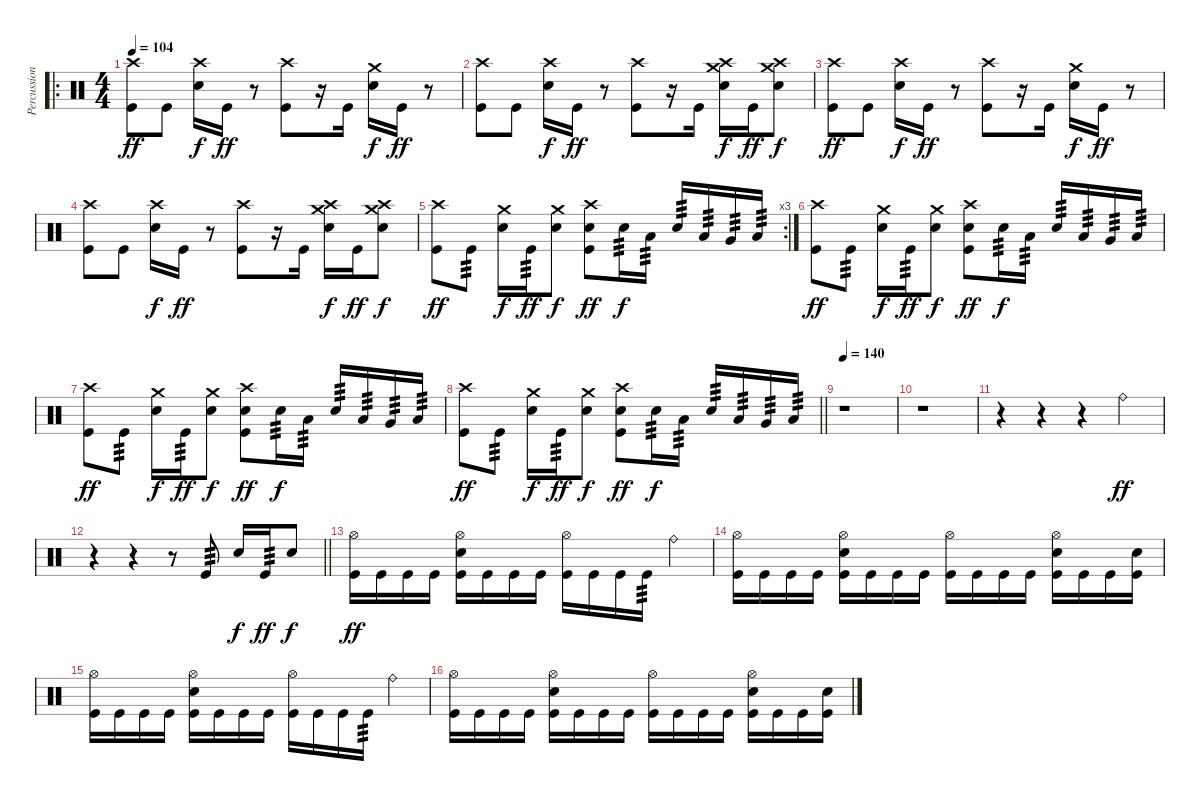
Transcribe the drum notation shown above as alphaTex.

\track ("Percussion" "Percussion") {instrument percussion}
\staff {score}
\articulation defaults
\ro
\ts (4 4)
\tempo 104
\clef neutral
\ks c
("Crash high (hit)" "Kick (hit)").8{dy ff} "Kick (hit)".8 ("Crash high (hit)" "Electric Snare (hit)").16{dy f} "Kick (hit)".16{dy ff} r.8 ("Crash high (hit)" "Kick (hit)").8 r.16 "Kick (hit)".16 ("Crash medium (hit)" "Electric Snare (hit)").16{dy f} "Kick (hit)".16{dy ff} r.8 |
("Crash high (hit)" "Kick (hit)").8 "Kick (hit)".8 ("Crash high (hit)" "Electric Snare (hit)").16{dy f} "Kick (hit)".16{dy ff} r.8 ("Crash high (hit)" "Kick (hit)").8 r.16 "Kick (hit)".16 ("Crash medium (hit)" "Crash high (hit)" "Electric Snare (hit)").16{dy f} "Kick (hit)".16{dy ff} ("Crash medium (hit)" "Crash high (hit)" "Electric Snare (hit)").8{dy f} |
("Crash high (hit)" "Kick (hit)").8{dy ff} "Kick (hit)".8 ("Crash high (hit)" "Electric Snare (hit)").16{dy f} "Kick (hit)".16{dy ff} r.8 ("Crash high (hit)" "Kick (hit)").8 r.16 "Kick (hit)".16 ("Crash medium (hit)" "Electric Snare (hit)").16{dy f} "Kick (hit)".16{dy ff} r.8 |
("Crash high (hit)" "Kick (hit)").8 "Kick (hit)".8 ("Crash high (hit)" "Electric Snare (hit)").16{dy f} "Kick (hit)".16{dy ff} r.8 ("Crash high (hit)" "Kick (hit)").8 r.16 "Kick (hit)".16 ("Crash medium (hit)" "Crash high (hit)" "Electric Snare (hit)").16{dy f} "Kick (hit)".16{dy ff} ("Crash medium (hit)" "Crash high (hit)" "Electric Snare (hit)").8{dy f} |
\rc 3
("Crash high (hit)" "Kick (hit)").8{dy ff} "Kick (hit)".8{tp 3} ("Crash medium (hit)" "Electric Snare (hit)").16{dy f} "Kick (hit)".16{tp 3 dy ff} ("Crash medium (hit)" "Electric Snare (hit)").8{dy f} ("Crash high (hit)" "Electric Snare (hit)" "Kick (hit)").8{dy ff} "Electric Snare (hit)".16{tp 3 dy f} "Low Tom (hit)".16{tp 3} "Electric Snare (hit)".16{tp 3} "Low Tom (hit)".16{tp 3} "Very Low Tom (hit)".16{tp 3} "Low Floor Tom (hit)".16{tp 3} |
("Crash high (hit)" "Kick (hit)").8{dy ff} "Kick (hit)".8{tp 3} ("Crash medium (hit)" "Electric Snare (hit)").16{dy f} "Kick (hit)".16{tp 3 dy ff} ("Crash medium (hit)" "Electric Snare (hit)").8{dy f} ("Crash high (hit)" "Electric Snare (hit)" "Kick (hit)").8{dy ff} "Electric Snare (hit)".16{tp 3 dy f} "Low Tom (hit)".16{tp 3} "Electric Snare (hit)".16{tp 3} "Low Tom (hit)".16{tp 3} "Very Low Tom (hit)".16{tp 3} "Low Floor Tom (hit)".16{tp 3} |
("Crash high (hit)" "Kick (hit)").8{dy ff} "Kick (hit)".8{tp 3} ("Crash medium (hit)" "Electric Snare (hit)").16{dy f} "Kick (hit)".16{tp 3 dy ff} ("Crash medium (hit)" "Electric Snare (hit)").8{dy f} ("Crash high (hit)" "Electric Snare (hit)" "Kick (hit)").8{dy ff} "Electric Snare (hit)".16{tp 3 dy f} "Low Tom (hit)".16{tp 3} "Electric Snare (hit)".16{tp 3} "Low Tom (hit)".16{tp 3} "Very Low Tom (hit)".16{tp 3} "Low Floor Tom (hit)".16{tp 3} |
\barLineRight lightlight
("Crash high (hit)" "Kick (hit)").8{dy ff} "Kick (hit)".8{tp 3} ("Crash medium (hit)" "Electric Snare (hit)").16{dy f} "Kick (hit)".16{tp 3 dy ff} ("Crash medium (hit)" "Electric Snare (hit)").8{dy f} ("Crash high (hit)" "Electric Snare (hit)" "Kick (hit)").8{dy ff} "Electric Snare (hit)".16{tp 3 dy f} "Low Tom (hit)".16{tp 3} "Electric Snare (hit)".16{tp 3} "Low Tom (hit)".16{tp 3} "Very Low Tom (hit)".16{tp 3} "Low Floor Tom (hit)".16{tp 3} |
\tempo 140
r.1 |
r.1 |
r.4 r.4 r.4 "Ride (bell)".4{dy ff} |
\barLineRight lightlight
r.4 r.4 r.8 "Kick (hit)".8{tp 3} "Electric Snare (hit)".16{dy f} "Kick (hit)".16{tp 3 dy ff} "Electric Snare (hit)".8{dy f} |
("Hi-Hat (open)" "Kick (hit)").16{dy ff} "Kick (hit)".16 "Kick (hit)".16 "Kick (hit)".16 ("Hi-Hat (open)" "Electric Snare (hit)" "Kick (hit)").16 "Kick (hit)".16 "Kick (hit)".16 "Kick (hit)".16 ("Hi-Hat (open)" "Kick (hit)").16 "Kick (hit)".16 "Kick (hit)".16 "Kick (hit)".16{tp 3} "Ride (bell)".4 |
("Hi-Hat (open)" "Kick (hit)").16 "Kick (hit)".16 "Kick (hit)".16 "Kick (hit)".16 ("Hi-Hat (open)" "Electric Snare (hit)" "Kick (hit)").16 "Kick (hit)".16 "Kick (hit)".16 "Kick (hit)".16 ("Hi-Hat (open)" "Kick (hit)").16 "Kick (hit)".16 "Kick (hit)".16 "Kick (hit)".16 ("Hi-Hat (open)" "Electric Snare (hit)" "Kick (hit)").16 "Kick (hit)".16 "Kick (hit)".16 ("Electric Snare (hit)" "Kick (hit)").16 |
("Hi-Hat (open)" "Kick (hit)").16 "Kick (hit)".16 "Kick (hit)".16 "Kick (hit)".16 ("Hi-Hat (open)" "Electric Snare (hit)" "Kick (hit)").16 "Kick (hit)".16 "Kick (hit)".16 "Kick (hit)".16 ("Hi-Hat (open)" "Kick (hit)").16 "Kick (hit)".16 "Kick (hit)".16 "Kick (hit)".16{tp 3} "Ride (bell)".4 |
("Hi-Hat (open)" "Kick (hit)").16 "Kick (hit)".16 "Kick (hit)".16 "Kick (hit)".16 ("Hi-Hat (open)" "Electric Snare (hit)" "Kick (hit)").16 "Kick (hit)".16 "Kick (hit)".16 "Kick (hit)".16 ("Hi-Hat (open)" "Kick (hit)").16 "Kick (hit)".16 "Kick (hit)".16 "Kick (hit)".16 ("Hi-Hat (open)" "Electric Snare (hit)" "Kick (hit)").16 "Kick (hit)".16 "Kick (hit)".16 ("Electric Snare (hit)" "Kick (hit)").16
